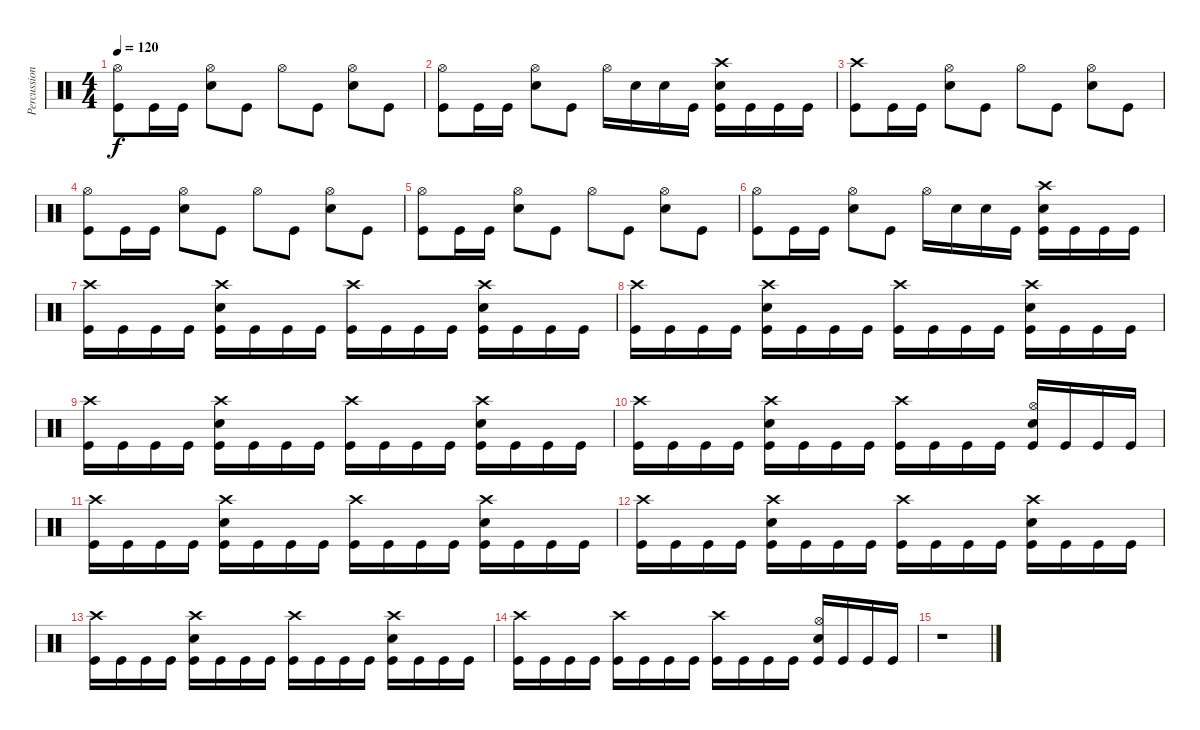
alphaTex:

\track ("Percussion" "Percussion") {instrument percussion}
\staff {score}
\articulation defaults
\ts (4 4)
\tempo 120
\clef neutral
\ks c
("Kick (hit)" "Hi-Hat (open)").8{dy f} "Kick (hit)".16 "Kick (hit)".16 ("Snare (hit) 2" "Hi-Hat (open)").8 "Kick (hit)".8 "Hi-Hat (open)".8 "Kick (hit)".8 ("Snare (hit) 2" "Hi-Hat (open)").8 "Kick (hit)".8 |
("Hi-Hat (open)" "Kick (hit)").8 "Kick (hit)".16 "Kick (hit)".16 ("Snare (hit) 2" "Hi-Hat (open)").8 "Kick (hit)".8 "Hi-Hat (open)".16 "Snare (hit) 2".16 "Snare (hit) 2".16 "Kick (hit)".16 ("Snare (hit) 2" "Crash high (hit)" "Kick (hit)").16 "Kick (hit)".16 "Kick (hit)".16 "Kick (hit)".16 |
("Kick (hit)" "Crash high (hit)").8 "Kick (hit)".16 "Kick (hit)".16 ("Snare (hit) 2" "Hi-Hat (open)").8 "Kick (hit)".8 "Hi-Hat (open)".8 "Kick (hit)".8 ("Snare (hit) 2" "Hi-Hat (open)").8 "Kick (hit)".8 |
("Kick (hit)" "Hi-Hat (open)").8 "Kick (hit)".16 "Kick (hit)".16 ("Snare (hit) 2" "Hi-Hat (open)").8 "Kick (hit)".8 "Hi-Hat (open)".8 "Kick (hit)".8 ("Snare (hit) 2" "Hi-Hat (open)").8 "Kick (hit)".8 |
("Kick (hit)" "Hi-Hat (open)").8 "Kick (hit)".16 "Kick (hit)".16 ("Snare (hit) 2" "Hi-Hat (open)").8 "Kick (hit)".8 "Hi-Hat (open)".8 "Kick (hit)".8 ("Snare (hit) 2" "Hi-Hat (open)").8 "Kick (hit)".8 |
("Hi-Hat (open)" "Kick (hit)").8 "Kick (hit)".16 "Kick (hit)".16 ("Snare (hit) 2" "Hi-Hat (open)").8 "Kick (hit)".8 "Hi-Hat (open)".16 "Snare (hit) 2".16 "Snare (hit) 2".16 "Kick (hit)".16 ("Snare (hit) 2" "Crash high (hit)" "Kick (hit)").16 "Kick (hit)".16 "Kick (hit)".16 "Kick (hit)".16 |
("Crash high (hit)" "Kick (hit)").16 "Kick (hit)".16 "Kick (hit)".16 "Kick (hit)".16 ("Snare (hit) 2" "Crash high (hit)" "Kick (hit)").16 "Kick (hit)".16 "Kick (hit)".16 "Kick (hit)".16 ("Crash high (hit)" "Kick (hit)").16 "Kick (hit)".16 "Kick (hit)".16 "Kick (hit)".16 ("Snare (hit) 2" "Crash high (hit)" "Kick (hit)").16 "Kick (hit)".16 "Kick (hit)".16 "Kick (hit)".16 |
("Crash high (hit)" "Kick (hit)").16 "Kick (hit)".16 "Kick (hit)".16 "Kick (hit)".16 ("Snare (hit) 2" "Crash high (hit)" "Kick (hit)").16 "Kick (hit)".16 "Kick (hit)".16 "Kick (hit)".16 ("Crash high (hit)" "Kick (hit)").16 "Kick (hit)".16 "Kick (hit)".16 "Kick (hit)".16 ("Snare (hit) 2" "Crash high (hit)" "Kick (hit)").16 "Kick (hit)".16 "Kick (hit)".16 "Kick (hit)".16 |
("Crash high (hit)" "Kick (hit)").16 "Kick (hit)".16 "Kick (hit)".16 "Kick (hit)".16 ("Snare (hit) 2" "Crash high (hit)" "Kick (hit)").16 "Kick (hit)".16 "Kick (hit)".16 "Kick (hit)".16 ("Crash high (hit)" "Kick (hit)").16 "Kick (hit)".16 "Kick (hit)".16 "Kick (hit)".16 ("Snare (hit) 2" "Crash high (hit)" "Kick (hit)").16 "Kick (hit)".16 "Kick (hit)".16 "Kick (hit)".16 |
("Crash high (hit)" "Kick (hit)").16 "Kick (hit)".16 "Kick (hit)".16 "Kick (hit)".16 ("Snare (hit) 2" "Crash high (hit)" "Kick (hit)").16 "Kick (hit)".16 "Kick (hit)".16 "Kick (hit)".16 ("Crash high (hit)" "Kick (hit)").16 "Kick (hit)".16 "Kick (hit)".16 "Kick (hit)".16 ("Snare (hit) 2" "Hi-Hat (open)" "Kick (hit)").16 "Kick (hit)".16 "Kick (hit)".16 "Kick (hit)".16 |
("Crash high (hit)" "Kick (hit)").16 "Kick (hit)".16 "Kick (hit)".16 "Kick (hit)".16 ("Snare (hit) 2" "Crash high (hit)" "Kick (hit)").16 "Kick (hit)".16 "Kick (hit)".16 "Kick (hit)".16 ("Crash high (hit)" "Kick (hit)").16 "Kick (hit)".16 "Kick (hit)".16 "Kick (hit)".16 ("Snare (hit) 2" "Crash high (hit)" "Kick (hit)").16 "Kick (hit)".16 "Kick (hit)".16 "Kick (hit)".16 |
("Crash high (hit)" "Kick (hit)").16 "Kick (hit)".16 "Kick (hit)".16 "Kick (hit)".16 ("Snare (hit) 2" "Crash high (hit)" "Kick (hit)").16 "Kick (hit)".16 "Kick (hit)".16 "Kick (hit)".16 ("Crash high (hit)" "Kick (hit)").16 "Kick (hit)".16 "Kick (hit)".16 "Kick (hit)".16 ("Snare (hit) 2" "Crash high (hit)" "Kick (hit)").16 "Kick (hit)".16 "Kick (hit)".16 "Kick (hit)".16 |
("Crash high (hit)" "Kick (hit)").16 "Kick (hit)".16 "Kick (hit)".16 "Kick (hit)".16 ("Snare (hit) 2" "Crash high (hit)" "Kick (hit)").16 "Kick (hit)".16 "Kick (hit)".16 "Kick (hit)".16 ("Crash high (hit)" "Kick (hit)").16 "Kick (hit)".16 "Kick (hit)".16 "Kick (hit)".16 ("Snare (hit) 2" "Crash high (hit)" "Kick (hit)").16 "Kick (hit)".16 "Kick (hit)".16 "Kick (hit)".16 |
("Crash high (hit)" "Kick (hit)").16 "Kick (hit)".16 "Kick (hit)".16 "Kick (hit)".16 ("Crash high (hit)" "Kick (hit)").16 "Kick (hit)".16 "Kick (hit)".16 "Kick (hit)".16 ("Crash high (hit)" "Kick (hit)").16 "Kick (hit)".16 "Kick (hit)".16 "Kick (hit)".16 ("Snare (hit) 2" "Hi-Hat (open)" "Kick (hit)").16 "Kick (hit)".16 "Kick (hit)".16 "Kick (hit)".16 |
r.1
